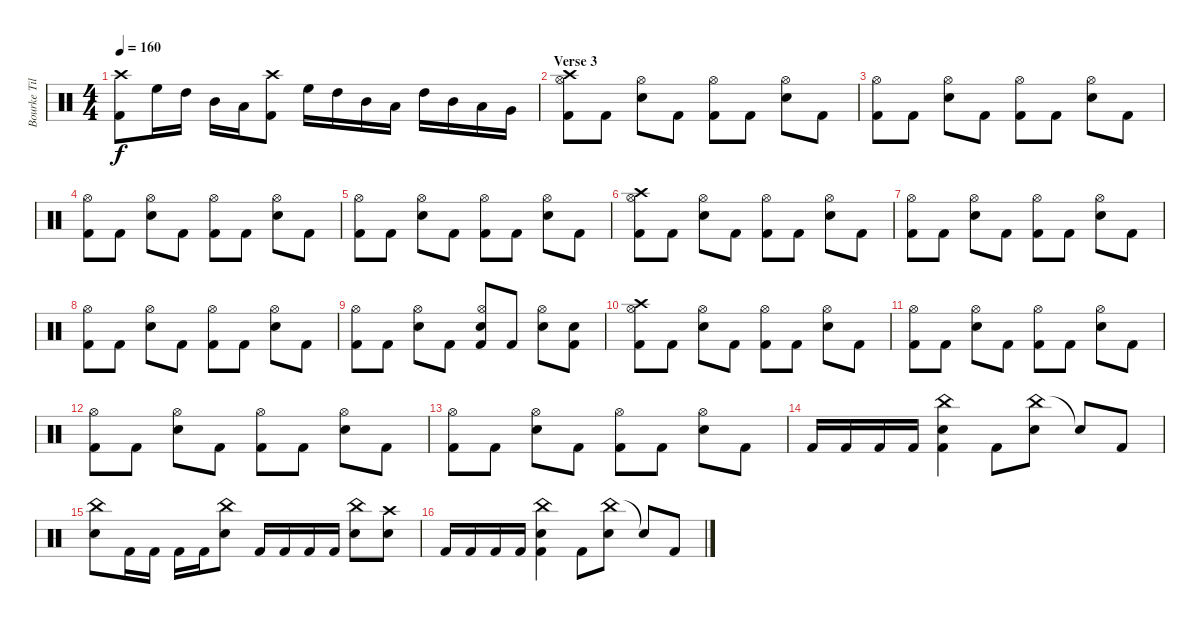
\track ("Bourke Tillman" "Bourke Til") {instrument percussion}
\staff {score}
\articulation defaults
\ts (4 4)
\tempo 160
\clef neutral
\ks c
("Crash high (hit)" "Kick (hit) 2").8{dy f} "High Floor Tom (hit)".16 "High Tom (hit)".16 "Mid Tom (hit)".16 "Low Tom (hit)".16 ("Crash high (hit)" "Kick (hit) 2").8 "High Floor Tom (hit)".16 "High Tom (hit)".16 "Mid Tom (hit)".16 "Low Tom (hit)".16 "High Tom (hit)".16 "Mid Tom (hit)".16 "Low Tom (hit)".16 "Very Low Tom (hit)".16 |
\section ("" "Verse 3")
("Crash high (hit)" "Hi-Hat (open)" "Kick (hit) 2").8 "Kick (hit) 2".8 ("Hi-Hat (open)" "Electric Snare (hit)").8 "Kick (hit) 2".8 ("Hi-Hat (open)" "Kick (hit) 2").8 "Kick (hit) 2".8 ("Hi-Hat (open)" "Electric Snare (hit)").8 "Kick (hit) 2".8 |
("Hi-Hat (open)" "Kick (hit) 2").8 "Kick (hit) 2".8 ("Hi-Hat (open)" "Electric Snare (hit)").8 "Kick (hit) 2".8 ("Hi-Hat (open)" "Kick (hit) 2").8 "Kick (hit) 2".8 ("Hi-Hat (open)" "Electric Snare (hit)").8 "Kick (hit) 2".8 |
("Hi-Hat (open)" "Kick (hit) 2").8 "Kick (hit) 2".8 ("Hi-Hat (open)" "Electric Snare (hit)").8 "Kick (hit) 2".8 ("Hi-Hat (open)" "Kick (hit) 2").8 "Kick (hit) 2".8 ("Hi-Hat (open)" "Electric Snare (hit)").8 "Kick (hit) 2".8 |
("Hi-Hat (open)" "Kick (hit) 2").8 "Kick (hit) 2".8 ("Hi-Hat (open)" "Electric Snare (hit)").8 "Kick (hit) 2".8 ("Hi-Hat (open)" "Kick (hit) 2").8 "Kick (hit) 2".8 ("Hi-Hat (open)" "Electric Snare (hit)").8 "Kick (hit) 2".8 |
("Crash high (hit)" "Hi-Hat (open)" "Kick (hit) 2").8 "Kick (hit) 2".8 ("Hi-Hat (open)" "Electric Snare (hit)").8 "Kick (hit) 2".8 ("Hi-Hat (open)" "Kick (hit) 2").8 "Kick (hit) 2".8 ("Hi-Hat (open)" "Electric Snare (hit)").8 "Kick (hit) 2".8 |
("Hi-Hat (open)" "Kick (hit) 2").8 "Kick (hit) 2".8 ("Hi-Hat (open)" "Electric Snare (hit)").8 "Kick (hit) 2".8 ("Hi-Hat (open)" "Kick (hit) 2").8 "Kick (hit) 2".8 ("Hi-Hat (open)" "Electric Snare (hit)").8 "Kick (hit) 2".8 |
("Hi-Hat (open)" "Kick (hit) 2").8 "Kick (hit) 2".8 ("Hi-Hat (open)" "Electric Snare (hit)").8 "Kick (hit) 2".8 ("Hi-Hat (open)" "Kick (hit) 2").8 "Kick (hit) 2".8 ("Hi-Hat (open)" "Electric Snare (hit)").8 "Kick (hit) 2".8 |
("Hi-Hat (open)" "Kick (hit) 2").8 "Kick (hit) 2".8 ("Hi-Hat (open)" "Electric Snare (hit)").8 "Kick (hit) 2".8 ("Hi-Hat (open)" "Electric Snare (hit)" "Kick (hit) 2").8 "Kick (hit) 2".8 ("Hi-Hat (open)" "Electric Snare (hit)").8 ("Electric Snare (hit)" "Kick (hit) 2").8 |
("Crash high (hit)" "Hi-Hat (open)" "Kick (hit) 2").8 "Kick (hit) 2".8 ("Hi-Hat (open)" "Electric Snare (hit)").8 "Kick (hit) 2".8 ("Hi-Hat (open)" "Kick (hit) 2").8 "Kick (hit) 2".8 ("Hi-Hat (open)" "Electric Snare (hit)").8 "Kick (hit) 2".8 |
("Hi-Hat (open)" "Kick (hit) 2").8 "Kick (hit) 2".8 ("Hi-Hat (open)" "Electric Snare (hit)").8 "Kick (hit) 2".8 ("Hi-Hat (open)" "Kick (hit) 2").8 "Kick (hit) 2".8 ("Hi-Hat (open)" "Electric Snare (hit)").8 "Kick (hit) 2".8 |
("Hi-Hat (open)" "Kick (hit) 2").8 "Kick (hit) 2".8 ("Hi-Hat (open)" "Electric Snare (hit)").8 "Kick (hit) 2".8 ("Hi-Hat (open)" "Kick (hit) 2").8 "Kick (hit) 2".8 ("Hi-Hat (open)" "Electric Snare (hit)").8 "Kick (hit) 2".8 |
("Hi-Hat (open)" "Kick (hit) 2").8 "Kick (hit) 2".8 ("Hi-Hat (open)" "Electric Snare (hit)").8 "Kick (hit) 2".8 ("Hi-Hat (open)" "Kick (hit) 2").8 "Kick (hit) 2".8 ("Hi-Hat (open)" "Electric Snare (hit)").8 "Kick (hit) 2".8 |
"Kick (hit) 2".16 "Kick (hit) 2".16 "Kick (hit) 2".16 "Kick (hit) 2".16 ("China (hit)" "Electric Snare (hit)" "Kick (hit) 2").4 "Kick (hit) 2".8 ("China (hit)" "Electric Snare (hit)").8 "Electric Snare (hit)"{t}.8 "Kick (hit) 2".8 |
("China (hit)" "Electric Snare (hit)").8 "Kick (hit) 2".16 "Kick (hit) 2".16 "Kick (hit) 2".16 "Kick (hit) 2".16 ("China (hit)" "Electric Snare (hit)").8 "Kick (hit) 2".16 "Kick (hit) 2".16 "Kick (hit) 2".16 "Kick (hit) 2".16 ("China (hit)" "Electric Snare (hit)").8 ("Crash high (hit)" "Electric Snare (hit)").8 |
"Kick (hit) 2".16 "Kick (hit) 2".16 "Kick (hit) 2".16 "Kick (hit) 2".16 ("China (hit)" "Electric Snare (hit)" "Kick (hit) 2").4 "Kick (hit) 2".8 ("China (hit)" "Electric Snare (hit)").8 "Electric Snare (hit)"{t}.8 "Kick (hit) 2".8
